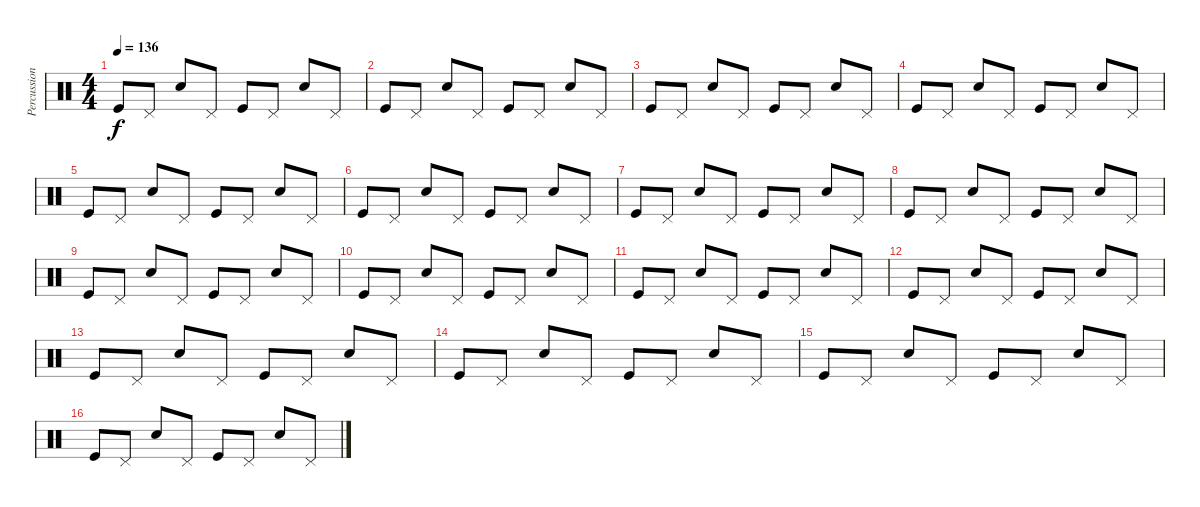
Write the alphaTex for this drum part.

\track ("Percussion" "Percussion") {instrument percussion}
\staff {score}
\articulation defaults
\ts (4 4)
\tempo 136
\clef neutral
\ks c "Kick (hit)".8{dy f} "Pedal Hi-Hat (hit)".8 "Snare (hit) 2".8 "Pedal Hi-Hat (hit)".8 "Kick (hit)".8 "Pedal Hi-Hat (hit)".8 "Snare (hit) 2".8 "Pedal Hi-Hat (hit)".8
|
"Kick (hit)".8 "Pedal Hi-Hat (hit)".8 "Snare (hit) 2".8 "Pedal Hi-Hat (hit)".8 "Kick (hit)".8 "Pedal Hi-Hat (hit)".8 "Snare (hit) 2".8 "Pedal Hi-Hat (hit)".8 |
"Kick (hit)".8 "Pedal Hi-Hat (hit)".8 "Snare (hit) 2".8 "Pedal Hi-Hat (hit)".8 "Kick (hit)".8 "Pedal Hi-Hat (hit)".8 "Snare (hit) 2".8 "Pedal Hi-Hat (hit)".8 |
"Kick (hit)".8 "Pedal Hi-Hat (hit)".8 "Snare (hit) 2".8 "Pedal Hi-Hat (hit)".8 "Kick (hit)".8 "Pedal Hi-Hat (hit)".8 "Snare (hit) 2".8 "Pedal Hi-Hat (hit)".8 |
"Kick (hit)".8 "Pedal Hi-Hat (hit)".8 "Snare (hit) 2".8 "Pedal Hi-Hat (hit)".8 "Kick (hit)".8 "Pedal Hi-Hat (hit)".8 "Snare (hit) 2".8 "Pedal Hi-Hat (hit)".8 |
"Kick (hit)".8 "Pedal Hi-Hat (hit)".8 "Snare (hit) 2".8 "Pedal Hi-Hat (hit)".8 "Kick (hit)".8 "Pedal Hi-Hat (hit)".8 "Snare (hit) 2".8 "Pedal Hi-Hat (hit)".8 |
"Kick (hit)".8 "Pedal Hi-Hat (hit)".8 "Snare (hit) 2".8 "Pedal Hi-Hat (hit)".8 "Kick (hit)".8 "Pedal Hi-Hat (hit)".8 "Snare (hit) 2".8 "Pedal Hi-Hat (hit)".8 |
"Kick (hit)".8 "Pedal Hi-Hat (hit)".8 "Snare (hit) 2".8 "Pedal Hi-Hat (hit)".8 "Kick (hit)".8 "Pedal Hi-Hat (hit)".8 "Snare (hit) 2".8 "Pedal Hi-Hat (hit)".8 |
"Kick (hit)".8 "Pedal Hi-Hat (hit)".8 "Snare (hit) 2".8 "Pedal Hi-Hat (hit)".8 "Kick (hit)".8 "Pedal Hi-Hat (hit)".8 "Snare (hit) 2".8 "Pedal Hi-Hat (hit)".8 |
"Kick (hit)".8 "Pedal Hi-Hat (hit)".8 "Snare (hit) 2".8 "Pedal Hi-Hat (hit)".8 "Kick (hit)".8 "Pedal Hi-Hat (hit)".8 "Snare (hit) 2".8 "Pedal Hi-Hat (hit)".8 |
"Kick (hit)".8 "Pedal Hi-Hat (hit)".8 "Snare (hit) 2".8 "Pedal Hi-Hat (hit)".8 "Kick (hit)".8 "Pedal Hi-Hat (hit)".8 "Snare (hit) 2".8 "Pedal Hi-Hat (hit)".8 |
"Kick (hit)".8 "Pedal Hi-Hat (hit)".8 "Snare (hit) 2".8 "Pedal Hi-Hat (hit)".8 "Kick (hit)".8 "Pedal Hi-Hat (hit)".8 "Snare (hit) 2".8 "Pedal Hi-Hat (hit)".8 |
"Kick (hit)".8 "Pedal Hi-Hat (hit)".8 "Snare (hit) 2".8 "Pedal Hi-Hat (hit)".8 "Kick (hit)".8 "Pedal Hi-Hat (hit)".8 "Snare (hit) 2".8 "Pedal Hi-Hat (hit)".8 |
"Kick (hit)".8 "Pedal Hi-Hat (hit)".8 "Snare (hit) 2".8 "Pedal Hi-Hat (hit)".8 "Kick (hit)".8 "Pedal Hi-Hat (hit)".8 "Snare (hit) 2".8 "Pedal Hi-Hat (hit)".8 |
"Kick (hit)".8 "Pedal Hi-Hat (hit)".8 "Snare (hit) 2".8 "Pedal Hi-Hat (hit)".8 "Kick (hit)".8 "Pedal Hi-Hat (hit)".8 "Snare (hit) 2".8 "Pedal Hi-Hat (hit)".8 |
"Kick (hit)".8 "Pedal Hi-Hat (hit)".8 "Snare (hit) 2".8 "Pedal Hi-Hat (hit)".8 "Kick (hit)".8 "Pedal Hi-Hat (hit)".8 "Snare (hit) 2".8 "Pedal Hi-Hat (hit)".8
